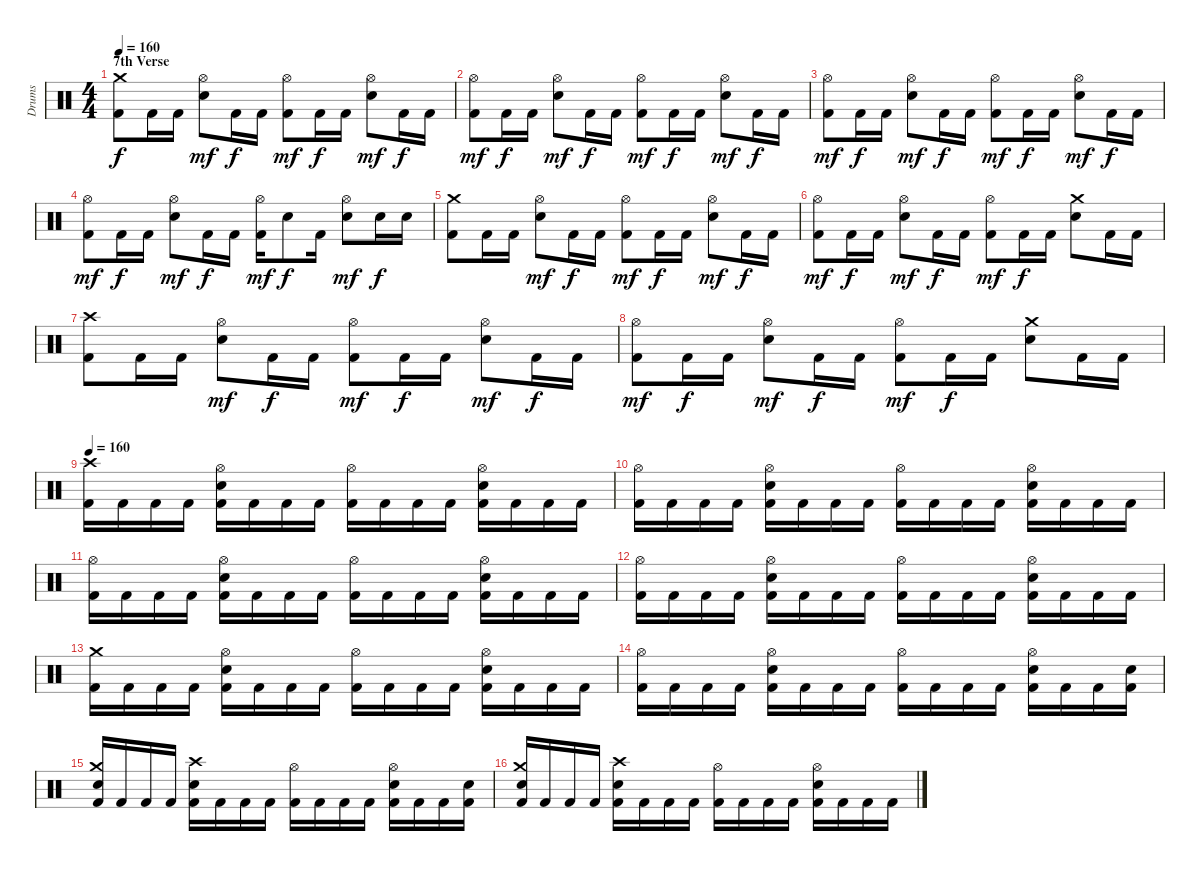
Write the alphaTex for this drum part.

\track ("Drums" "Drums") {instrument percussion}
\staff {score}
\articulation defaults
\ts (4 4)
\section ("" "7th Verse")
\tempo 160
\clef neutral
\ks c
("Kick (hit) 2" "Crash medium (hit)").8{dy f} "Kick (hit) 2".16 "Kick (hit) 2".16 ("Electric Snare (hit)" "Hi-Hat (open)").8{dy mf} "Kick (hit) 2".16{dy f} "Kick (hit) 2".16 ("Kick (hit) 2" "Hi-Hat (open)").8{dy mf} "Kick (hit) 2".16{dy f} "Kick (hit) 2".16 ("Electric Snare (hit)" "Hi-Hat (open)").8{dy mf} "Kick (hit) 2".16{dy f} "Kick (hit) 2".16 |
("Kick (hit) 2" "Hi-Hat (open)").8{dy mf} "Kick (hit) 2".16{dy f} "Kick (hit) 2".16 ("Electric Snare (hit)" "Hi-Hat (open)").8{dy mf} "Kick (hit) 2".16{dy f} "Kick (hit) 2".16 ("Kick (hit) 2" "Hi-Hat (open)").8{dy mf} "Kick (hit) 2".16{dy f} "Kick (hit) 2".16 ("Electric Snare (hit)" "Hi-Hat (open)").8{dy mf} "Kick (hit) 2".16{dy f} "Kick (hit) 2".16 |
("Kick (hit) 2" "Hi-Hat (open)").8{dy mf} "Kick (hit) 2".16{dy f} "Kick (hit) 2".16 ("Electric Snare (hit)" "Hi-Hat (open)").8{dy mf} "Kick (hit) 2".16{dy f} "Kick (hit) 2".16 ("Kick (hit) 2" "Hi-Hat (open)").8{dy mf} "Kick (hit) 2".16{dy f} "Kick (hit) 2".16 ("Electric Snare (hit)" "Hi-Hat (open)").8{dy mf} "Kick (hit) 2".16{dy f} "Kick (hit) 2".16 |
("Kick (hit) 2" "Hi-Hat (open)").8{dy mf} "Kick (hit) 2".16{dy f} "Kick (hit) 2".16 ("Electric Snare (hit)" "Hi-Hat (open)").8{dy mf} "Kick (hit) 2".16{dy f} "Kick (hit) 2".16 ("Kick (hit) 2" "Hi-Hat (open)").16{dy mf} "Electric Snare (hit)".8{dy f} "Kick (hit) 2".16 ("Electric Snare (hit)" "Hi-Hat (open)").8{dy mf} "Electric Snare (hit)".16{dy f} "Electric Snare (hit)".16 |
("Kick (hit) 2" "Crash medium (hit)").8 "Kick (hit) 2".16 "Kick (hit) 2".16 ("Electric Snare (hit)" "Hi-Hat (open)").8{dy mf} "Kick (hit) 2".16{dy f} "Kick (hit) 2".16 ("Kick (hit) 2" "Hi-Hat (open)").8{dy mf} "Kick (hit) 2".16{dy f} "Kick (hit) 2".16 ("Electric Snare (hit)" "Hi-Hat (open)").8{dy mf} "Kick (hit) 2".16{dy f} "Kick (hit) 2".16 |
("Kick (hit) 2" "Hi-Hat (open)").8{dy mf} "Kick (hit) 2".16{dy f} "Kick (hit) 2".16 ("Electric Snare (hit)" "Hi-Hat (open)").8{dy mf} "Kick (hit) 2".16{dy f} "Kick (hit) 2".16 ("Kick (hit) 2" "Hi-Hat (open)").8{dy mf} "Kick (hit) 2".16{dy f} "Kick (hit) 2".16 ("Electric Snare (hit)" "Crash medium (hit)").8 "Kick (hit) 2".16 "Kick (hit) 2".16 |
("Kick (hit) 2" "Crash high (hit)").8 "Kick (hit) 2".16 "Kick (hit) 2".16 ("Electric Snare (hit)" "Hi-Hat (open)").8{dy mf} "Kick (hit) 2".16{dy f} "Kick (hit) 2".16 ("Kick (hit) 2" "Hi-Hat (open)").8{dy mf} "Kick (hit) 2".16{dy f} "Kick (hit) 2".16 ("Electric Snare (hit)" "Hi-Hat (open)").8{dy mf} "Kick (hit) 2".16{dy f} "Kick (hit) 2".16 |
("Kick (hit) 2" "Hi-Hat (open)").8{dy mf} "Kick (hit) 2".16{dy f} "Kick (hit) 2".16 ("Electric Snare (hit)" "Hi-Hat (open)").8{dy mf} "Kick (hit) 2".16{dy f} "Kick (hit) 2".16 ("Kick (hit) 2" "Hi-Hat (open)").8{dy mf} "Kick (hit) 2".16{dy f} "Kick (hit) 2".16 ("Electric Snare (hit)" "Crash medium (hit)").8 "Kick (hit) 2".16 "Kick (hit) 2".16 |
\tempo 160
("Kick (hit) 2" "Crash high (hit)").16 "Kick (hit) 2".16 "Kick (hit) 2".16 "Kick (hit) 2".16 ("Kick (hit) 2" "Electric Snare (hit)" "Hi-Hat (open)").16 "Kick (hit) 2".16 "Kick (hit) 2".16 "Kick (hit) 2".16 ("Kick (hit) 2" "Hi-Hat (open)").16 "Kick (hit) 2".16 "Kick (hit) 2".16 "Kick (hit) 2".16 ("Kick (hit) 2" "Electric Snare (hit)" "Hi-Hat (open)").16 "Kick (hit) 2".16 "Kick (hit) 2".16 "Kick (hit) 2".16 |
("Kick (hit) 2" "Hi-Hat (open)").16 "Kick (hit) 2".16 "Kick (hit) 2".16 "Kick (hit) 2".16 ("Kick (hit) 2" "Electric Snare (hit)" "Hi-Hat (open)").16 "Kick (hit) 2".16 "Kick (hit) 2".16 "Kick (hit) 2".16 ("Kick (hit) 2" "Hi-Hat (open)").16 "Kick (hit) 2".16 "Kick (hit) 2".16 "Kick (hit) 2".16 ("Kick (hit) 2" "Electric Snare (hit)" "Hi-Hat (open)").16 "Kick (hit) 2".16 "Kick (hit) 2".16 "Kick (hit) 2".16 |
("Kick (hit) 2" "Hi-Hat (open)").16 "Kick (hit) 2".16 "Kick (hit) 2".16 "Kick (hit) 2".16 ("Kick (hit) 2" "Electric Snare (hit)" "Hi-Hat (open)").16 "Kick (hit) 2".16 "Kick (hit) 2".16 "Kick (hit) 2".16 ("Kick (hit) 2" "Hi-Hat (open)").16 "Kick (hit) 2".16 "Kick (hit) 2".16 "Kick (hit) 2".16 ("Kick (hit) 2" "Electric Snare (hit)" "Hi-Hat (open)").16 "Kick (hit) 2".16 "Kick (hit) 2".16 "Kick (hit) 2".16 |
("Kick (hit) 2" "Hi-Hat (open)").16 "Kick (hit) 2".16 "Kick (hit) 2".16 "Kick (hit) 2".16 ("Kick (hit) 2" "Electric Snare (hit)" "Hi-Hat (open)").16 "Kick (hit) 2".16 "Kick (hit) 2".16 "Kick (hit) 2".16 ("Kick (hit) 2" "Hi-Hat (open)").16 "Kick (hit) 2".16 "Kick (hit) 2".16 "Kick (hit) 2".16 ("Kick (hit) 2" "Electric Snare (hit)" "Hi-Hat (open)").16 "Kick (hit) 2".16 "Kick (hit) 2".16 "Kick (hit) 2".16 |
("Kick (hit) 2" "Crash medium (hit)").16 "Kick (hit) 2".16 "Kick (hit) 2".16 "Kick (hit) 2".16 ("Kick (hit) 2" "Electric Snare (hit)" "Hi-Hat (open)").16 "Kick (hit) 2".16 "Kick (hit) 2".16 "Kick (hit) 2".16 ("Kick (hit) 2" "Hi-Hat (open)").16 "Kick (hit) 2".16 "Kick (hit) 2".16 "Kick (hit) 2".16 ("Kick (hit) 2" "Electric Snare (hit)" "Hi-Hat (open)").16 "Kick (hit) 2".16 "Kick (hit) 2".16 "Kick (hit) 2".16 |
("Kick (hit) 2" "Hi-Hat (open)").16 "Kick (hit) 2".16 "Kick (hit) 2".16 "Kick (hit) 2".16 ("Kick (hit) 2" "Electric Snare (hit)" "Hi-Hat (open)").16 "Kick (hit) 2".16 "Kick (hit) 2".16 "Kick (hit) 2".16 ("Kick (hit) 2" "Hi-Hat (open)").16 "Kick (hit) 2".16 "Kick (hit) 2".16 "Kick (hit) 2".16 ("Kick (hit) 2" "Electric Snare (hit)" "Hi-Hat (open)").16 "Kick (hit) 2".16 "Kick (hit) 2".16 ("Kick (hit) 2" "Electric Snare (hit)").16 |
("Kick (hit) 2" "Electric Snare (hit)" "Crash medium (hit)").16 "Kick (hit) 2".16 "Kick (hit) 2".16 "Kick (hit) 2".16 ("Kick (hit) 2" "Electric Snare (hit)" "Crash high (hit)").16 "Kick (hit) 2".16 "Kick (hit) 2".16 "Kick (hit) 2".16 ("Kick (hit) 2" "Hi-Hat (open)").16 "Kick (hit) 2".16 "Kick (hit) 2".16 "Kick (hit) 2".16 ("Kick (hit) 2" "Electric Snare (hit)" "Hi-Hat (open)").16 "Kick (hit) 2".16 "Kick (hit) 2".16 ("Kick (hit) 2" "Electric Snare (hit)").16 |
("Kick (hit) 2" "Electric Snare (hit)" "Crash medium (hit)").16 "Kick (hit) 2".16 "Kick (hit) 2".16 "Kick (hit) 2".16 ("Kick (hit) 2" "Electric Snare (hit)" "Crash high (hit)").16 "Kick (hit) 2".16 "Kick (hit) 2".16 "Kick (hit) 2".16 ("Kick (hit) 2" "Hi-Hat (open)").16 "Kick (hit) 2".16 "Kick (hit) 2".16 "Kick (hit) 2".16 ("Kick (hit) 2" "Electric Snare (hit)" "Hi-Hat (open)").16 "Kick (hit) 2".16 "Kick (hit) 2".16 "Kick (hit) 2".16
